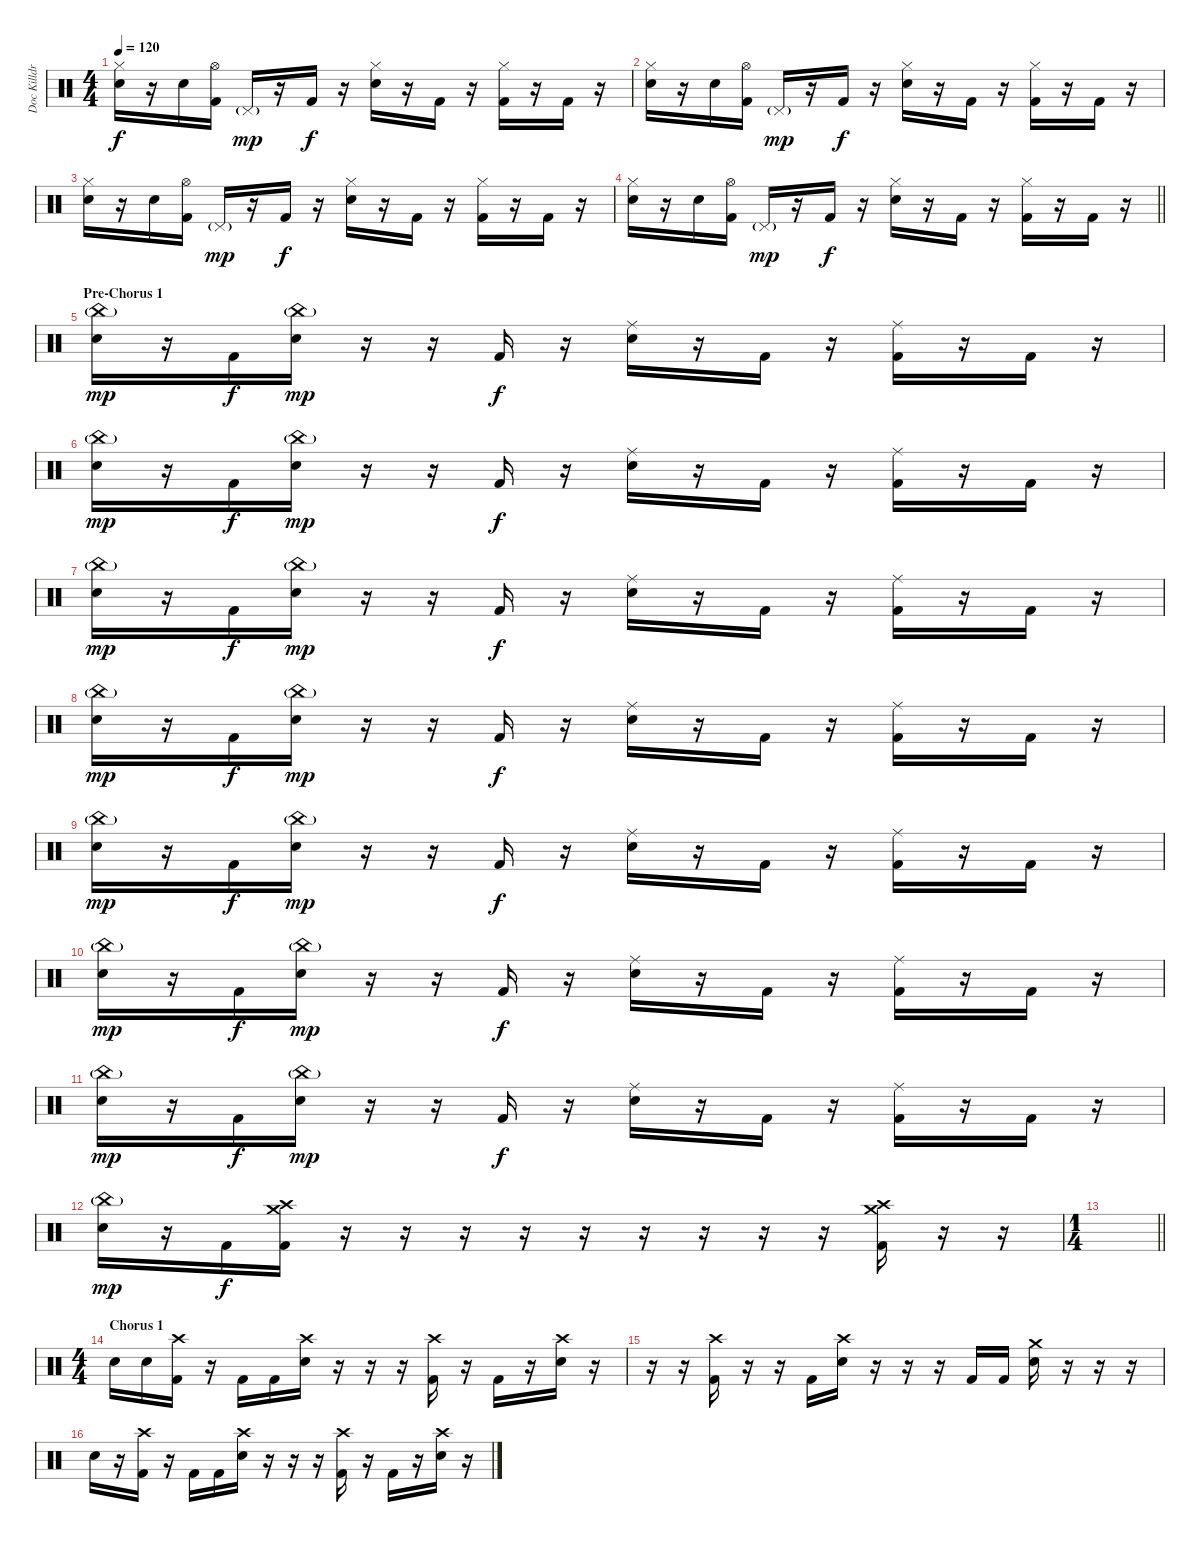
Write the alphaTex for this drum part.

\track ("Doc Killdrums (What else?)" "Doc Killdr") {instrument percussion}
\staff {score}
\articulation defaults
\ts (4 4)
\tempo 120
\clef neutral
\ks c
("Snare (hit) 2" "Hi-Hat (closed)").16{dy f} r.16 "Snare (hit) 2".16 ("Kick (hit) 2" "Hi-Hat (open)").16 "Pedal Hi-Hat (hit)"{g}.16{dy mp} r.16 "Kick (hit) 2".16{dy f} r.16 ("Snare (hit) 2" "Hi-Hat (closed)").16 r.16 "Kick (hit) 2".16 r.16 ("Kick (hit) 2" "Hi-Hat (closed)").16 r.16 "Kick (hit) 2".16 r.16 |
("Snare (hit) 2" "Hi-Hat (closed)").16 r.16 "Snare (hit) 2".16 ("Kick (hit) 2" "Hi-Hat (open)").16 "Pedal Hi-Hat (hit)"{g}.16{dy mp} r.16 "Kick (hit) 2".16{dy f} r.16 ("Snare (hit) 2" "Hi-Hat (closed)").16 r.16 "Kick (hit) 2".16 r.16 ("Kick (hit) 2" "Hi-Hat (closed)").16 r.16 "Kick (hit) 2".16 r.16 |
("Snare (hit) 2" "Hi-Hat (closed)").16 r.16 "Snare (hit) 2".16 ("Kick (hit) 2" "Hi-Hat (open)").16 "Pedal Hi-Hat (hit)"{g}.16{dy mp} r.16 "Kick (hit) 2".16{dy f} r.16 ("Snare (hit) 2" "Hi-Hat (closed)").16 r.16 "Kick (hit) 2".16 r.16 ("Kick (hit) 2" "Hi-Hat (closed)").16 r.16 "Kick (hit) 2".16 r.16 |
\barLineRight lightlight
("Snare (hit) 2" "Hi-Hat (closed)").16 r.16 "Snare (hit) 2".16 ("Kick (hit) 2" "Hi-Hat (open)").16 "Pedal Hi-Hat (hit)"{g}.16{dy mp} r.16 "Kick (hit) 2".16{dy f} r.16 ("Snare (hit) 2" "Hi-Hat (closed)").16 r.16 "Kick (hit) 2".16 r.16 ("Kick (hit) 2" "Hi-Hat (closed)").16 r.16 "Kick (hit) 2".16 r.16 |
\section ("" "Pre-Chorus 1")
("Snare (hit) 2" "China (hit)"{g}).16{dy mp} r.16 "Kick (hit) 2".16{dy f} ("Snare (hit) 2" "China (hit)"{g}).16{dy mp} r.16 r.16 "Kick (hit) 2".16{dy f} r.16 ("Snare (hit) 2" "Ride (middle)").16 r.16 "Kick (hit) 2".16 r.16 ("Kick (hit) 2" "Ride (middle)").16 r.16 "Kick (hit) 2".16 r.16 |
("Snare (hit) 2" "China (hit)"{g}).16{dy mp} r.16 "Kick (hit) 2".16{dy f} ("Snare (hit) 2" "China (hit)"{g}).16{dy mp} r.16 r.16 "Kick (hit) 2".16{dy f} r.16 ("Snare (hit) 2" "Ride (middle)").16 r.16 "Kick (hit) 2".16 r.16 ("Kick (hit) 2" "Ride (middle)").16 r.16 "Kick (hit) 2".16 r.16 |
("Snare (hit) 2" "China (hit)"{g}).16{dy mp} r.16 "Kick (hit) 2".16{dy f} ("Snare (hit) 2" "China (hit)"{g}).16{dy mp} r.16 r.16 "Kick (hit) 2".16{dy f} r.16 ("Snare (hit) 2" "Ride (middle)").16 r.16 "Kick (hit) 2".16 r.16 ("Kick (hit) 2" "Ride (middle)").16 r.16 "Kick (hit) 2".16 r.16 |
("Snare (hit) 2" "China (hit)"{g}).16{dy mp} r.16 "Kick (hit) 2".16{dy f} ("Snare (hit) 2" "China (hit)"{g}).16{dy mp} r.16 r.16 "Kick (hit) 2".16{dy f} r.16 ("Snare (hit) 2" "Ride (middle)").16 r.16 "Kick (hit) 2".16 r.16 ("Kick (hit) 2" "Ride (middle)").16 r.16 "Kick (hit) 2".16 r.16 |
("Snare (hit) 2" "China (hit)"{g}).16{dy mp} r.16 "Kick (hit) 2".16{dy f} ("Snare (hit) 2" "China (hit)"{g}).16{dy mp} r.16 r.16 "Kick (hit) 2".16{dy f} r.16 ("Snare (hit) 2" "Ride (middle)").16 r.16 "Kick (hit) 2".16 r.16 ("Kick (hit) 2" "Ride (middle)").16 r.16 "Kick (hit) 2".16 r.16 |
("Snare (hit) 2" "China (hit)"{g}).16{dy mp} r.16 "Kick (hit) 2".16{dy f} ("Snare (hit) 2" "China (hit)"{g}).16{dy mp} r.16 r.16 "Kick (hit) 2".16{dy f} r.16 ("Snare (hit) 2" "Ride (middle)").16 r.16 "Kick (hit) 2".16 r.16 ("Kick (hit) 2" "Ride (middle)").16 r.16 "Kick (hit) 2".16 r.16 |
("Snare (hit) 2" "China (hit)"{g}).16{dy mp} r.16 "Kick (hit) 2".16{dy f} ("Snare (hit) 2" "China (hit)"{g}).16{dy mp} r.16 r.16 "Kick (hit) 2".16{dy f} r.16 ("Snare (hit) 2" "Ride (middle)").16 r.16 "Kick (hit) 2".16 r.16 ("Kick (hit) 2" "Ride (middle)").16 r.16 "Kick (hit) 2".16 r.16 |
("Snare (hit) 2" "China (hit)"{g}).16{dy mp} r.16 "Kick (hit) 2".16{dy f} ("Kick (hit) 2" "Crash medium (hit)" "Crash high (hit)").16 r.16 r.16 r.16 r.16 r.16 r.16 r.16 r.16 r.16 ("Kick (hit) 2" "Crash medium (hit)" "Crash high (hit)").16 r.16 r.16 |
\ts (1 4)
\barLineRight lightlight
|
\ts (4 4)
\section ("" "Chorus 1")
"Snare (hit) 2".16 "Snare (hit) 2".16 ("Kick (hit) 2" "Crash high (hit)").16 r.16 "Kick (hit) 2".16 "Kick (hit) 2".16 ("Snare (hit) 2" "Crash high (hit)").16 r.16 r.16 r.16 ("Kick (hit) 2" "Crash high (hit)").16 r.16 "Kick (hit) 2".16 r.16 ("Snare (hit) 2" "Crash high (hit)").16 r.16 |
r.16 r.16 ("Kick (hit) 2" "Crash high (hit)").16 r.16 r.16 "Kick (hit) 2".16 ("Snare (hit) 2" "Crash high (hit)").16 r.16 r.16 r.16 "Kick (hit) 2".16 "Kick (hit) 2".16 ("Snare (hit) 2" "Crash medium (hit)").16 r.16 r.16 r.16 |
"Snare (hit) 2".16 r.16 ("Kick (hit) 2" "Crash high (hit)").16 r.16 "Kick (hit) 2".16 "Kick (hit) 2".16 ("Snare (hit) 2" "Crash high (hit)").16 r.16 r.16 r.16 ("Kick (hit) 2" "Crash high (hit)").16 r.16 "Kick (hit) 2".16 r.16 ("Snare (hit) 2" "Crash high (hit)").16 r.16
